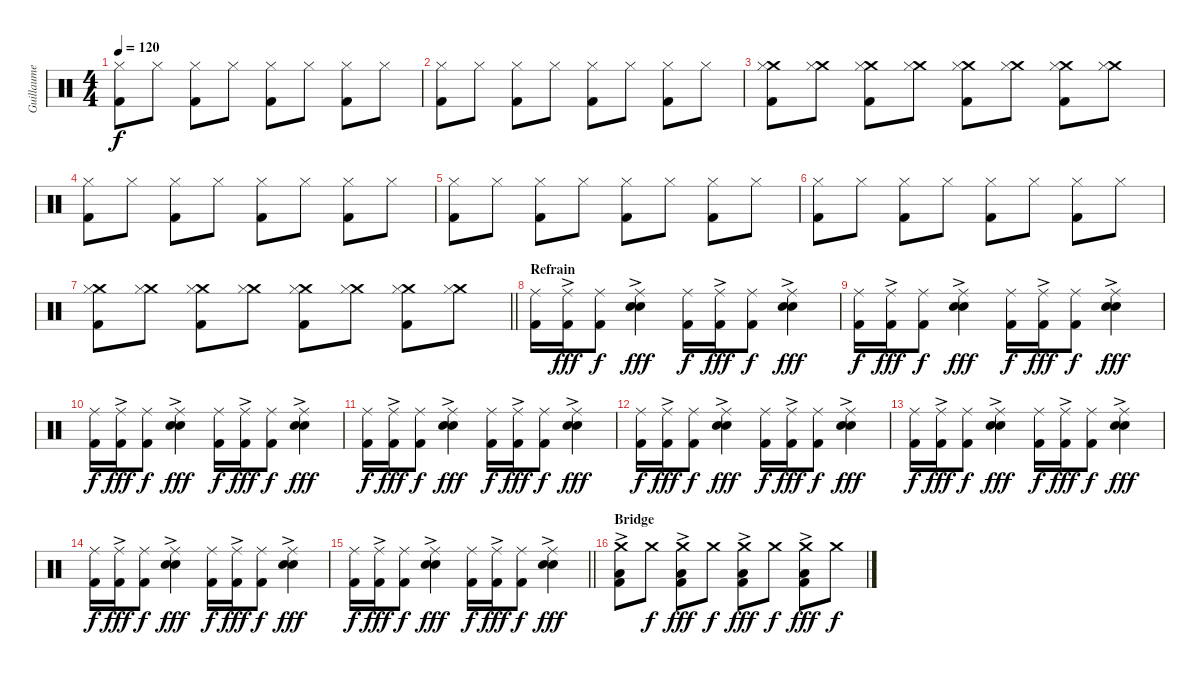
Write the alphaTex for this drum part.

\track ("Guillaume (batterie)" "Guillaume ") {instrument percussion}
\staff {score}
\articulation defaults
\ts (4 4)
\tempo 120
\clef neutral
\ks c
("Hi-Hat (closed)" "Kick (hit) 2").8{dy f} "Hi-Hat (closed)".8 ("Hi-Hat (closed)" "Kick (hit) 2").8 "Hi-Hat (closed)".8 ("Hi-Hat (closed)" "Kick (hit) 2").8 "Hi-Hat (closed)".8 ("Hi-Hat (closed)" "Kick (hit) 2").8 "Hi-Hat (closed)".8 |
("Hi-Hat (closed)" "Kick (hit) 2").8 "Hi-Hat (closed)".8 ("Hi-Hat (closed)" "Kick (hit) 2").8 "Hi-Hat (closed)".8 ("Hi-Hat (closed)" "Kick (hit) 2").8 "Hi-Hat (closed)".8 ("Hi-Hat (closed)" "Kick (hit) 2").8 "Hi-Hat (closed)".8 |
("Crash medium (hit)" "Hi-Hat (closed)" "Kick (hit) 2").8{volume 9} ("Crash medium (hit)" "Hi-Hat (closed)").8 ("Crash medium (hit)" "Hi-Hat (closed)" "Kick (hit) 2").8{volume 11} ("Crash medium (hit)" "Hi-Hat (closed)").8 ("Crash medium (hit)" "Hi-Hat (closed)" "Kick (hit) 2").8{volume 12} ("Crash medium (hit)" "Hi-Hat (closed)").8 ("Crash medium (hit)" "Hi-Hat (closed)" "Kick (hit) 2").8{volume 15} ("Crash medium (hit)" "Hi-Hat (closed)").8 |
("Hi-Hat (closed)" "Kick (hit) 2").8{volume 9} "Hi-Hat (closed)".8 ("Hi-Hat (closed)" "Kick (hit) 2").8 "Hi-Hat (closed)".8 ("Hi-Hat (closed)" "Kick (hit) 2").8 "Hi-Hat (closed)".8 ("Hi-Hat (closed)" "Kick (hit) 2").8 "Hi-Hat (closed)".8 |
("Hi-Hat (closed)" "Kick (hit) 2").8 "Hi-Hat (closed)".8 ("Hi-Hat (closed)" "Kick (hit) 2").8 "Hi-Hat (closed)".8 ("Hi-Hat (closed)" "Kick (hit) 2").8 "Hi-Hat (closed)".8 ("Hi-Hat (closed)" "Kick (hit) 2").8 "Hi-Hat (closed)".8 |
("Hi-Hat (closed)" "Kick (hit) 2").8 "Hi-Hat (closed)".8 ("Hi-Hat (closed)" "Kick (hit) 2").8 "Hi-Hat (closed)".8 ("Hi-Hat (closed)" "Kick (hit) 2").8 "Hi-Hat (closed)".8 ("Hi-Hat (closed)" "Kick (hit) 2").8 "Hi-Hat (closed)".8 |
\barLineRight lightlight
("Crash medium (hit)" "Hi-Hat (closed)" "Kick (hit) 2").8{volume 9} ("Crash medium (hit)" "Hi-Hat (closed)").8 ("Crash medium (hit)" "Hi-Hat (closed)" "Kick (hit) 2").8{volume 11} ("Crash medium (hit)" "Hi-Hat (closed)").8 ("Crash medium (hit)" "Hi-Hat (closed)" "Kick (hit) 2").8{volume 12} ("Crash medium (hit)" "Hi-Hat (closed)").8 ("Crash medium (hit)" "Hi-Hat (closed)" "Kick (hit) 2").8{volume 15} ("Crash medium (hit)" "Hi-Hat (closed)").8 |
\section ("" "Refrain")
("Ride (middle)" "Kick (hit) 2").16 ("Ride (middle)" "Kick (hit) 2"{ac}).16{dy fff} ("Ride (middle)" "Kick (hit) 2").8{dy f} ("Ride (middle)" "Snare (hit) 2"{ac} "Electric Snare (hit)"{ac}).4{dy fff} ("Ride (middle)" "Kick (hit) 2").16{dy f} ("Ride (middle)" "Kick (hit) 2"{ac}).16{dy fff} ("Ride (middle)" "Kick (hit) 2").8{dy f} ("Ride (middle)" "Snare (hit) 2"{ac} "Electric Snare (hit)"{ac}).4{dy fff} |
("Ride (middle)" "Kick (hit) 2").16{dy f} ("Ride (middle)" "Kick (hit) 2"{ac}).16{dy fff} ("Ride (middle)" "Kick (hit) 2").8{dy f} ("Ride (middle)" "Snare (hit) 2"{ac} "Electric Snare (hit)"{ac}).4{dy fff} ("Ride (middle)" "Kick (hit) 2").16{dy f} ("Ride (middle)" "Kick (hit) 2"{ac}).16{dy fff} ("Ride (middle)" "Kick (hit) 2").8{dy f} ("Ride (middle)" "Snare (hit) 2"{ac} "Electric Snare (hit)"{ac}).4{dy fff} |
("Ride (middle)" "Kick (hit) 2").16{dy f} ("Ride (middle)" "Kick (hit) 2"{ac}).16{dy fff} ("Ride (middle)" "Kick (hit) 2").8{dy f} ("Ride (middle)" "Snare (hit) 2"{ac} "Electric Snare (hit)"{ac}).4{dy fff} ("Ride (middle)" "Kick (hit) 2").16{dy f} ("Ride (middle)" "Kick (hit) 2"{ac}).16{dy fff} ("Ride (middle)" "Kick (hit) 2").8{dy f} ("Ride (middle)" "Snare (hit) 2"{ac} "Electric Snare (hit)"{ac}).4{dy fff} |
("Ride (middle)" "Kick (hit) 2").16{dy f} ("Ride (middle)" "Kick (hit) 2"{ac}).16{dy fff} ("Ride (middle)" "Kick (hit) 2").8{dy f} ("Ride (middle)" "Snare (hit) 2"{ac} "Electric Snare (hit)"{ac}).4{dy fff} ("Ride (middle)" "Kick (hit) 2").16{dy f} ("Ride (middle)" "Kick (hit) 2"{ac}).16{dy fff} ("Ride (middle)" "Kick (hit) 2").8{dy f} ("Ride (middle)" "Snare (hit) 2"{ac} "Electric Snare (hit)"{ac}).4{dy fff} |
("Ride (middle)" "Kick (hit) 2").16{dy f} ("Ride (middle)" "Kick (hit) 2"{ac}).16{dy fff} ("Ride (middle)" "Kick (hit) 2").8{dy f} ("Ride (middle)" "Snare (hit) 2"{ac} "Electric Snare (hit)"{ac}).4{dy fff} ("Ride (middle)" "Kick (hit) 2").16{dy f} ("Ride (middle)" "Kick (hit) 2"{ac}).16{dy fff} ("Ride (middle)" "Kick (hit) 2").8{dy f} ("Ride (middle)" "Snare (hit) 2"{ac} "Electric Snare (hit)"{ac}).4{dy fff} |
("Ride (middle)" "Kick (hit) 2").16{dy f} ("Ride (middle)" "Kick (hit) 2"{ac}).16{dy fff} ("Ride (middle)" "Kick (hit) 2").8{dy f} ("Ride (middle)" "Snare (hit) 2"{ac} "Electric Snare (hit)"{ac}).4{dy fff} ("Ride (middle)" "Kick (hit) 2").16{dy f} ("Ride (middle)" "Kick (hit) 2"{ac}).16{dy fff} ("Ride (middle)" "Kick (hit) 2").8{dy f} ("Ride (middle)" "Snare (hit) 2"{ac} "Electric Snare (hit)"{ac}).4{dy fff} |
("Ride (middle)" "Kick (hit) 2").16{dy f} ("Ride (middle)" "Kick (hit) 2"{ac}).16{dy fff} ("Ride (middle)" "Kick (hit) 2").8{dy f} ("Ride (middle)" "Snare (hit) 2"{ac} "Electric Snare (hit)"{ac}).4{dy fff} ("Ride (middle)" "Kick (hit) 2").16{dy f} ("Ride (middle)" "Kick (hit) 2"{ac}).16{dy fff} ("Ride (middle)" "Kick (hit) 2").8{dy f} ("Ride (middle)" "Snare (hit) 2"{ac} "Electric Snare (hit)"{ac}).4{dy fff} |
\barLineRight lightlight
("Ride (middle)" "Kick (hit) 2").16{dy f} ("Ride (middle)" "Kick (hit) 2"{ac}).16{dy fff} ("Ride (middle)" "Kick (hit) 2").8{dy f} ("Ride (middle)" "Snare (hit) 2"{ac} "Electric Snare (hit)"{ac}).4{dy fff} ("Ride (middle)" "Kick (hit) 2").16{dy f} ("Ride (middle)" "Kick (hit) 2"{ac}).16{dy fff} ("Ride (middle)" "Kick (hit) 2").8{dy f} ("Ride (middle)" "Snare (hit) 2"{ac} "Electric Snare (hit)"{ac}).4{dy fff} |
\section ("" "Bridge")
("Low Tom (hit)"{ac} "Crash medium (hit)" "Kick (hit) 2"{ac}).8 "Crash medium (hit)".8{dy f} ("Low Tom (hit)"{ac} "Crash medium (hit)" "Kick (hit) 2"{ac}).8{dy fff} "Crash medium (hit)".8{dy f} ("Low Tom (hit)"{ac} "Crash medium (hit)" "Kick (hit) 2"{ac}).8{dy fff} "Crash medium (hit)".8{dy f} ("Low Tom (hit)"{ac} "Crash medium (hit)" "Kick (hit) 2"{ac}).8{dy fff} "Crash medium (hit)".8{dy f}
